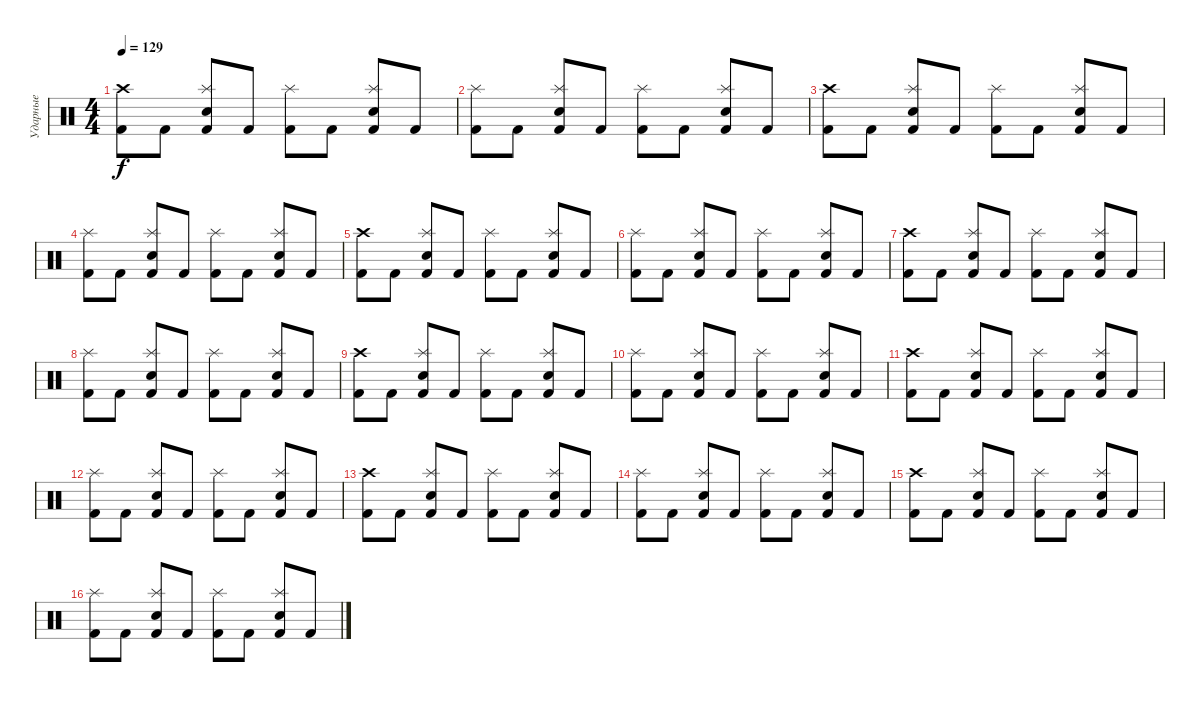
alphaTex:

\track ("Ударные" "Ударные") {instrument percussion}
\staff {score}
\articulation defaults
\ts (4 4)
\tempo 129
\clef neutral
\ks c
("Crash high (hit)" "Kick (hit) 2").8{dy f} "Kick (hit) 2".8 ("Splash (hit)" "Snare (hit) 2" "Kick (hit) 2").8 "Kick (hit) 2".8 ("Splash (hit)" "Kick (hit) 2").8 "Kick (hit) 2".8 ("Splash (hit)" "Snare (hit) 2" "Kick (hit) 2").8 "Kick (hit) 2".8 |
("Splash (hit)" "Kick (hit) 2").8 "Kick (hit) 2".8 ("Splash (hit)" "Snare (hit) 2" "Kick (hit) 2").8 "Kick (hit) 2".8 ("Splash (hit)" "Kick (hit) 2").8 "Kick (hit) 2".8 ("Splash (hit)" "Snare (hit) 2" "Kick (hit) 2").8 "Kick (hit) 2".8 |
("Crash high (hit)" "Kick (hit) 2").8 "Kick (hit) 2".8 ("Splash (hit)" "Snare (hit) 2" "Kick (hit) 2").8 "Kick (hit) 2".8 ("Splash (hit)" "Kick (hit) 2").8 "Kick (hit) 2".8 ("Splash (hit)" "Snare (hit) 2" "Kick (hit) 2").8 "Kick (hit) 2".8 |
("Splash (hit)" "Kick (hit) 2").8 "Kick (hit) 2".8 ("Splash (hit)" "Snare (hit) 2" "Kick (hit) 2").8 "Kick (hit) 2".8 ("Splash (hit)" "Kick (hit) 2").8 "Kick (hit) 2".8 ("Splash (hit)" "Snare (hit) 2" "Kick (hit) 2").8 "Kick (hit) 2".8 |
("Crash high (hit)" "Kick (hit) 2").8 "Kick (hit) 2".8 ("Splash (hit)" "Snare (hit) 2" "Kick (hit) 2").8 "Kick (hit) 2".8 ("Splash (hit)" "Kick (hit) 2").8 "Kick (hit) 2".8 ("Splash (hit)" "Snare (hit) 2" "Kick (hit) 2").8 "Kick (hit) 2".8 |
("Splash (hit)" "Kick (hit) 2").8 "Kick (hit) 2".8 ("Splash (hit)" "Snare (hit) 2" "Kick (hit) 2").8 "Kick (hit) 2".8 ("Splash (hit)" "Kick (hit) 2").8 "Kick (hit) 2".8 ("Splash (hit)" "Snare (hit) 2" "Kick (hit) 2").8 "Kick (hit) 2".8 |
("Crash high (hit)" "Kick (hit) 2").8 "Kick (hit) 2".8 ("Splash (hit)" "Snare (hit) 2" "Kick (hit) 2").8 "Kick (hit) 2".8 ("Splash (hit)" "Kick (hit) 2").8 "Kick (hit) 2".8 ("Splash (hit)" "Snare (hit) 2" "Kick (hit) 2").8 "Kick (hit) 2".8 |
("Splash (hit)" "Kick (hit) 2").8 "Kick (hit) 2".8 ("Splash (hit)" "Snare (hit) 2" "Kick (hit) 2").8 "Kick (hit) 2".8 ("Splash (hit)" "Kick (hit) 2").8 "Kick (hit) 2".8 ("Splash (hit)" "Snare (hit) 2" "Kick (hit) 2").8 "Kick (hit) 2".8 |
("Crash high (hit)" "Kick (hit) 2").8 "Kick (hit) 2".8 ("Splash (hit)" "Snare (hit) 2" "Kick (hit) 2").8 "Kick (hit) 2".8 ("Splash (hit)" "Kick (hit) 2").8 "Kick (hit) 2".8 ("Splash (hit)" "Snare (hit) 2" "Kick (hit) 2").8 "Kick (hit) 2".8 |
("Splash (hit)" "Kick (hit) 2").8 "Kick (hit) 2".8 ("Splash (hit)" "Snare (hit) 2" "Kick (hit) 2").8 "Kick (hit) 2".8 ("Splash (hit)" "Kick (hit) 2").8 "Kick (hit) 2".8 ("Splash (hit)" "Snare (hit) 2" "Kick (hit) 2").8 "Kick (hit) 2".8 |
("Crash high (hit)" "Kick (hit) 2").8 "Kick (hit) 2".8 ("Splash (hit)" "Snare (hit) 2" "Kick (hit) 2").8 "Kick (hit) 2".8 ("Splash (hit)" "Kick (hit) 2").8 "Kick (hit) 2".8 ("Splash (hit)" "Snare (hit) 2" "Kick (hit) 2").8 "Kick (hit) 2".8 |
("Splash (hit)" "Kick (hit) 2").8 "Kick (hit) 2".8 ("Splash (hit)" "Snare (hit) 2" "Kick (hit) 2").8 "Kick (hit) 2".8 ("Splash (hit)" "Kick (hit) 2").8 "Kick (hit) 2".8 ("Splash (hit)" "Snare (hit) 2" "Kick (hit) 2").8 "Kick (hit) 2".8 |
("Crash high (hit)" "Kick (hit) 2").8 "Kick (hit) 2".8 ("Splash (hit)" "Snare (hit) 2" "Kick (hit) 2").8 "Kick (hit) 2".8 ("Splash (hit)" "Kick (hit) 2").8 "Kick (hit) 2".8 ("Splash (hit)" "Snare (hit) 2" "Kick (hit) 2").8 "Kick (hit) 2".8 |
("Splash (hit)" "Kick (hit) 2").8 "Kick (hit) 2".8 ("Splash (hit)" "Snare (hit) 2" "Kick (hit) 2").8 "Kick (hit) 2".8 ("Splash (hit)" "Kick (hit) 2").8 "Kick (hit) 2".8 ("Splash (hit)" "Snare (hit) 2" "Kick (hit) 2").8 "Kick (hit) 2".8 |
("Crash high (hit)" "Kick (hit) 2").8 "Kick (hit) 2".8 ("Splash (hit)" "Snare (hit) 2" "Kick (hit) 2").8 "Kick (hit) 2".8 ("Splash (hit)" "Kick (hit) 2").8 "Kick (hit) 2".8 ("Splash (hit)" "Snare (hit) 2" "Kick (hit) 2").8 "Kick (hit) 2".8 |
("Splash (hit)" "Kick (hit) 2").8 "Kick (hit) 2".8 ("Splash (hit)" "Snare (hit) 2" "Kick (hit) 2").8 "Kick (hit) 2".8 ("Splash (hit)" "Kick (hit) 2").8 "Kick (hit) 2".8 ("Splash (hit)" "Snare (hit) 2" "Kick (hit) 2").8 "Kick (hit) 2".8
